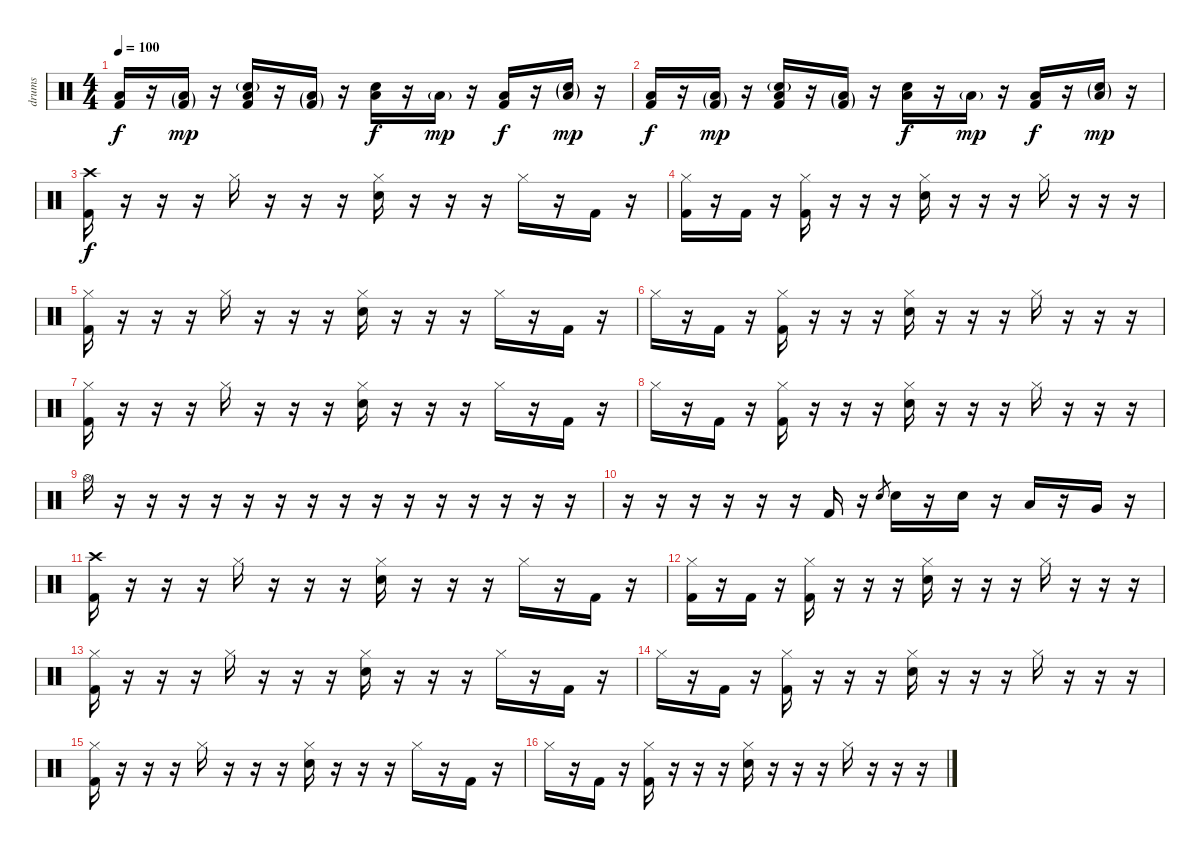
\track ("drums" "drums") {instrument percussion}
\staff {score}
\articulation defaults
\ts (4 4)
\tempo 100
\clef neutral
\ks c
("Low Floor Tom (hit)" "Kick (hit) 2").16{dy f} r.16 ("Low Floor Tom (hit)"{g} "Kick (hit) 2"{g}).16{dy mp} r.16 ("Low Floor Tom (hit)" "Snare (hit) 2"{g} "Kick (hit) 2").16 r.16 ("Low Floor Tom (hit)"{g} "Kick (hit) 2"{g}).16 r.16 ("Low Floor Tom (hit)" "Snare (hit) 2").16{dy f} r.16 "Low Floor Tom (hit)"{g}.16{dy mp} r.16 ("Low Floor Tom (hit)" "Kick (hit) 2").16{dy f} r.16 ("Low Floor Tom (hit)"{g} "Snare (hit) 2"{g}).16{dy mp} r.16 |
("Low Floor Tom (hit)" "Kick (hit) 2").16{dy f} r.16 ("Low Floor Tom (hit)"{g} "Kick (hit) 2"{g}).16{dy mp} r.16 ("Low Floor Tom (hit)" "Snare (hit) 2"{g} "Kick (hit) 2").16 r.16 ("Low Floor Tom (hit)"{g} "Kick (hit) 2"{g}).16 r.16 ("Low Floor Tom (hit)" "Snare (hit) 2").16{dy f} r.16 "Low Floor Tom (hit)"{g}.16{dy mp} r.16 ("Low Floor Tom (hit)" "Kick (hit) 2").16{dy f} r.16 ("Low Floor Tom (hit)"{g} "Snare (hit) 2"{g}).16{dy mp} r.16 |
("Crash high (hit)" "Kick (hit) 2").16{dy f} r.16 r.16 r.16 "Hi-Hat (closed)".16 r.16 r.16 r.16 ("Hi-Hat (closed)" "Snare (hit) 2").16 r.16 r.16 r.16 "Hi-Hat (closed)".16 r.16 "Kick (hit) 2".16 r.16 |
("Hi-Hat (closed)" "Kick (hit) 2").16 r.16 "Kick (hit) 2".16 r.16 ("Hi-Hat (closed)" "Kick (hit) 2").16 r.16 r.16 r.16 ("Hi-Hat (closed)" "Snare (hit) 2").16 r.16 r.16 r.16 "Hi-Hat (closed)".16 r.16 r.16 r.16 |
("Hi-Hat (closed)" "Kick (hit) 2").16 r.16 r.16 r.16 "Hi-Hat (closed)".16 r.16 r.16 r.16 ("Hi-Hat (closed)" "Snare (hit) 2").16 r.16 r.16 r.16 "Hi-Hat (closed)".16 r.16 "Kick (hit) 2".16 r.16 |
"Hi-Hat (closed)".16 r.16 "Kick (hit) 2".16 r.16 ("Hi-Hat (closed)" "Kick (hit) 2").16 r.16 r.16 r.16 ("Hi-Hat (closed)" "Snare (hit) 2").16 r.16 r.16 r.16 "Hi-Hat (closed)".16 r.16 r.16 r.16 |
("Hi-Hat (closed)" "Kick (hit) 2").16 r.16 r.16 r.16 "Hi-Hat (closed)".16 r.16 r.16 r.16 ("Hi-Hat (closed)" "Snare (hit) 2").16 r.16 r.16 r.16 "Hi-Hat (closed)".16 r.16 "Kick (hit) 2".16 r.16 |
"Hi-Hat (closed)".16 r.16 "Kick (hit) 2".16 r.16 ("Hi-Hat (closed)" "Kick (hit) 2").16 r.16 r.16 r.16 ("Hi-Hat (closed)" "Snare (hit) 2").16 r.16 r.16 r.16 "Hi-Hat (closed)".16 r.16 r.16 r.16 |
"Hi-Hat (open)".16 r.16 r.16 r.16 r.16 r.16 r.16 r.16 r.16 r.16 r.16 r.16 r.16 r.16 r.16 r.16 |
r.16 r.16 r.16 r.16 r.16 r.16 "Kick (hit) 2".16 r.16 "Snare (hit) 2".8{gr} "Snare (hit) 2".16 r.16 "Snare (hit) 2".16 r.16 "Low Tom (hit)".16 r.16 "Very Low Tom (hit)".16 r.16 |
("Crash high (hit)" "Kick (hit) 2").16 r.16 r.16 r.16 "Hi-Hat (closed)".16 r.16 r.16 r.16 ("Hi-Hat (closed)" "Snare (hit) 2").16 r.16 r.16 r.16 "Hi-Hat (closed)".16 r.16 "Kick (hit) 2".16 r.16 |
("Hi-Hat (closed)" "Kick (hit) 2").16 r.16 "Kick (hit) 2".16 r.16 ("Hi-Hat (closed)" "Kick (hit) 2").16 r.16 r.16 r.16 ("Hi-Hat (closed)" "Snare (hit) 2").16 r.16 r.16 r.16 "Hi-Hat (closed)".16 r.16 r.16 r.16 |
("Hi-Hat (closed)" "Kick (hit) 2").16 r.16 r.16 r.16 "Hi-Hat (closed)".16 r.16 r.16 r.16 ("Hi-Hat (closed)" "Snare (hit) 2").16 r.16 r.16 r.16 "Hi-Hat (closed)".16 r.16 "Kick (hit) 2".16 r.16 |
"Hi-Hat (closed)".16 r.16 "Kick (hit) 2".16 r.16 ("Hi-Hat (closed)" "Kick (hit) 2").16 r.16 r.16 r.16 ("Hi-Hat (closed)" "Snare (hit) 2").16 r.16 r.16 r.16 "Hi-Hat (closed)".16 r.16 r.16 r.16 |
("Hi-Hat (closed)" "Kick (hit) 2").16 r.16 r.16 r.16 "Hi-Hat (closed)".16 r.16 r.16 r.16 ("Hi-Hat (closed)" "Snare (hit) 2").16 r.16 r.16 r.16 "Hi-Hat (closed)".16 r.16 "Kick (hit) 2".16 r.16 |
"Hi-Hat (closed)".16 r.16 "Kick (hit) 2".16 r.16 ("Hi-Hat (closed)" "Kick (hit) 2").16 r.16 r.16 r.16 ("Hi-Hat (closed)" "Snare (hit) 2").16 r.16 r.16 r.16 "Hi-Hat (closed)".16 r.16 r.16 r.16
